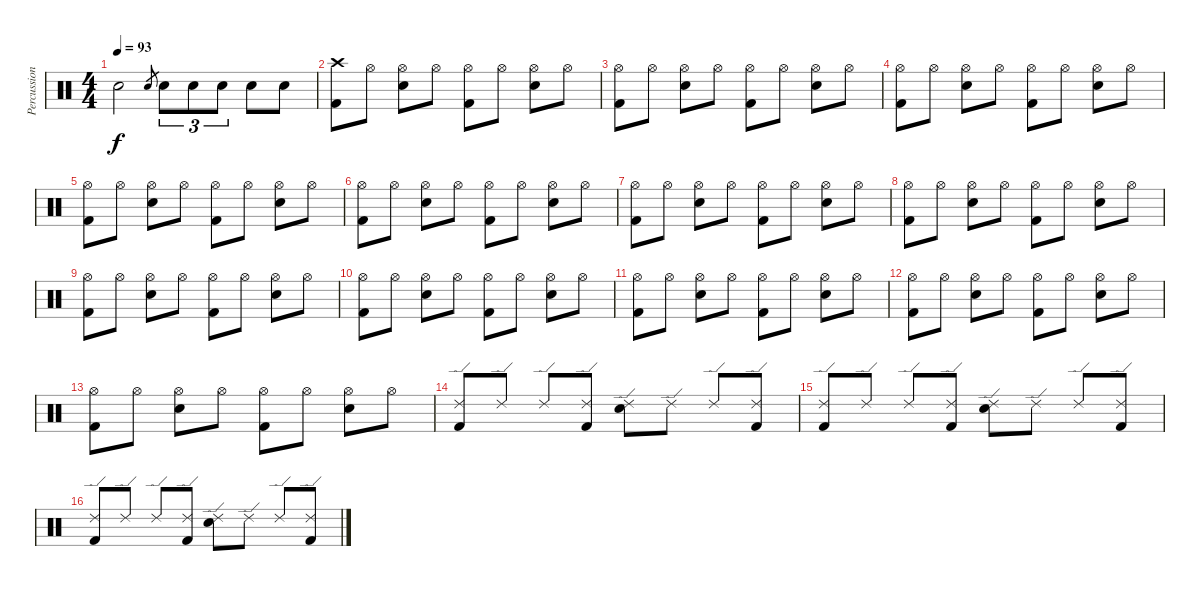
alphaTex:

\track ("Percussion" "Percussion") {instrument percussion}
\staff {score}
\articulation defaults
\ts (4 4)
\tempo 93
\clef neutral
\ks c "Snare (hit)"{t}.2{dy f} "Snare (hit) 2".8{gr} "Snare (hit) 2".8{tu (3 2)} "Snare (hit) 2".8{tu (3 2)} "Snare (hit) 2".8{tu (3 2)} "Snare (hit) 2".8 "Snare (hit) 2".8
|
("Crash high (hit)" "Kick (hit) 2").8 "Hi-Hat (open)".8 ("Hi-Hat (open)" "Snare (hit) 2").8 "Hi-Hat (open)".8 ("Hi-Hat (open)" "Kick (hit) 2").8 "Hi-Hat (open)".8 ("Hi-Hat (open)" "Snare (hit) 2").8 "Hi-Hat (open)".8 |
("Hi-Hat (open)" "Kick (hit) 2").8 "Hi-Hat (open)".8 ("Hi-Hat (open)" "Snare (hit) 2").8 "Hi-Hat (open)".8 ("Hi-Hat (open)" "Kick (hit) 2").8 "Hi-Hat (open)".8 ("Hi-Hat (open)" "Snare (hit) 2").8 "Hi-Hat (open)".8 |
("Hi-Hat (open)" "Kick (hit) 2").8 "Hi-Hat (open)".8 ("Hi-Hat (open)" "Snare (hit) 2").8 "Hi-Hat (open)".8 ("Hi-Hat (open)" "Kick (hit) 2").8 "Hi-Hat (open)".8 ("Hi-Hat (open)" "Snare (hit) 2").8 "Hi-Hat (open)".8 |
("Hi-Hat (open)" "Kick (hit) 2").8 "Hi-Hat (open)".8 ("Hi-Hat (open)" "Snare (hit) 2").8 "Hi-Hat (open)".8 ("Hi-Hat (open)" "Kick (hit) 2").8 "Hi-Hat (open)".8 ("Hi-Hat (open)" "Snare (hit) 2").8 "Hi-Hat (open)".8 |
("Hi-Hat (open)" "Kick (hit) 2").8 "Hi-Hat (open)".8 ("Hi-Hat (open)" "Snare (hit) 2").8 "Hi-Hat (open)".8 ("Hi-Hat (open)" "Kick (hit) 2").8 "Hi-Hat (open)".8 ("Hi-Hat (open)" "Snare (hit) 2").8 "Hi-Hat (open)".8 |
("Hi-Hat (open)" "Kick (hit) 2").8 "Hi-Hat (open)".8 ("Hi-Hat (open)" "Snare (hit) 2").8 "Hi-Hat (open)".8 ("Hi-Hat (open)" "Kick (hit) 2").8 "Hi-Hat (open)".8 ("Hi-Hat (open)" "Snare (hit) 2").8 "Hi-Hat (open)".8 |
("Hi-Hat (open)" "Kick (hit) 2").8 "Hi-Hat (open)".8 ("Hi-Hat (open)" "Snare (hit) 2").8 "Hi-Hat (open)".8 ("Hi-Hat (open)" "Kick (hit) 2").8 "Hi-Hat (open)".8 ("Hi-Hat (open)" "Snare (hit) 2").8 "Hi-Hat (open)".8 |
("Hi-Hat (open)" "Kick (hit) 2").8 "Hi-Hat (open)".8 ("Hi-Hat (open)" "Snare (hit) 2").8 "Hi-Hat (open)".8 ("Hi-Hat (open)" "Kick (hit) 2").8 "Hi-Hat (open)".8 ("Hi-Hat (open)" "Snare (hit) 2").8 "Hi-Hat (open)".8 |
("Hi-Hat (open)" "Kick (hit) 2").8 "Hi-Hat (open)".8 ("Hi-Hat (open)" "Snare (hit) 2").8 "Hi-Hat (open)".8 ("Hi-Hat (open)" "Kick (hit) 2").8 "Hi-Hat (open)".8 ("Hi-Hat (open)" "Snare (hit) 2").8 "Hi-Hat (open)".8 |
("Hi-Hat (open)" "Kick (hit) 2").8 "Hi-Hat (open)".8 ("Hi-Hat (open)" "Snare (hit) 2").8 "Hi-Hat (open)".8 ("Hi-Hat (open)" "Kick (hit) 2").8 "Hi-Hat (open)".8 ("Hi-Hat (open)" "Snare (hit) 2").8 "Hi-Hat (open)".8 |
("Hi-Hat (open)" "Kick (hit) 2").8 "Hi-Hat (open)".8 ("Hi-Hat (open)" "Snare (hit) 2").8 "Hi-Hat (open)".8 ("Hi-Hat (open)" "Kick (hit) 2").8 "Hi-Hat (open)".8 ("Hi-Hat (open)" "Snare (hit) 2").8 "Hi-Hat (open)".8 |
("Hi-Hat (open)" "Kick (hit) 2").8 "Hi-Hat (open)".8 ("Hi-Hat (open)" "Snare (hit) 2").8 "Hi-Hat (open)".8 ("Hi-Hat (open)" "Kick (hit) 2").8 "Hi-Hat (open)".8 ("Hi-Hat (open)" "Snare (hit) 2").8 "Hi-Hat (open)".8 |
("Ride (edge) 2" "Kick (hit) 2").8 "Ride (edge) 2".8 "Ride (edge) 2".8 ("Ride (edge) 2" "Kick (hit) 2").8 ("Ride (edge) 2" "Snare (hit) 2").8 "Ride (edge) 2".8 "Ride (edge) 2".8 ("Ride (edge) 2" "Kick (hit) 2").8 |
("Ride (edge) 2" "Kick (hit) 2").8 "Ride (edge) 2".8 "Ride (edge) 2".8 ("Ride (edge) 2" "Kick (hit) 2").8 ("Ride (edge) 2" "Snare (hit) 2").8 "Ride (edge) 2".8 "Ride (edge) 2".8 ("Ride (edge) 2" "Kick (hit) 2").8 |
("Ride (edge) 2" "Kick (hit) 2").8 "Ride (edge) 2".8 "Ride (edge) 2".8 ("Ride (edge) 2" "Kick (hit) 2").8 ("Ride (edge) 2" "Snare (hit) 2").8 "Ride (edge) 2".8 "Ride (edge) 2".8 ("Ride (edge) 2" "Kick (hit) 2").8
